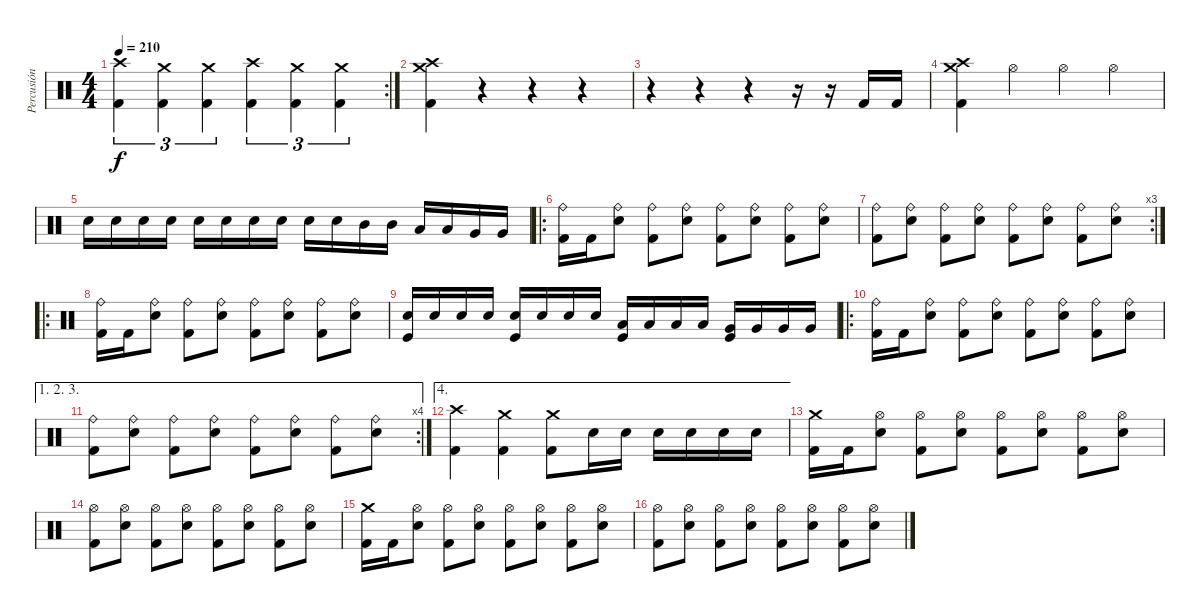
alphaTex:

\track ("Percusión" "Percusión") {instrument percussion}
\staff {score}
\articulation defaults
\rc 2
\ts (4 4)
\tempo 210
\clef neutral
\ks c
("Crash high (hit)" "Kick (hit) 2").4{tu (3 2) dy f} ("Crash medium (hit)" "Kick (hit) 2").4{tu (3 2)} ("Crash medium (hit)" "Kick (hit) 2").4{tu (3 2)} ("Crash high (hit)" "Kick (hit) 2").4{tu (3 2)} ("Crash medium (hit)" "Kick (hit) 2").4{tu (3 2)} ("Crash medium (hit)" "Kick (hit) 2").4{tu (3 2)} |
("Crash medium (hit)" "Crash high (hit)" "Kick (hit) 2").4 r.4 r.4 r.4 |
r.4 r.4 r.4 r.16 r.16 "Kick (hit) 2".16 "Kick (hit) 2".16 |
("Crash medium (hit)" "Crash high (hit)" "Kick (hit) 2").4 "Hi-Hat (open)".4 "Hi-Hat (open)".4 "Hi-Hat (open)".4 |
"Snare (hit) 2".16 "Snare (hit) 2".16 "Snare (hit) 2".16 "Snare (hit) 2".16 "Snare (hit) 2".16 "Snare (hit) 2".16 "Snare (hit) 2".16 "Snare (hit) 2".16 "Snare (hit) 2".16 "Snare (hit) 2".16 "Mid Tom (hit)".16 "Mid Tom (hit)".16 "Low Tom (hit)".16 "Low Tom (hit)".16 "Very Low Tom (hit)".16 "Very Low Tom (hit)".16 |
\ro
("Ride (bell)" "Kick (hit) 2").16 "Kick (hit) 2".16 ("Ride (bell)" "Snare (hit) 2").8 ("Ride (bell)" "Kick (hit) 2").8 ("Ride (bell)" "Snare (hit) 2").8 ("Ride (bell)" "Kick (hit) 2").8 ("Ride (bell)" "Snare (hit) 2").8 ("Ride (bell)" "Kick (hit) 2").8 ("Ride (bell)" "Snare (hit) 2").8 |
\rc 3
("Ride (bell)" "Kick (hit) 2").8 ("Ride (bell)" "Snare (hit) 2").8 ("Ride (bell)" "Kick (hit) 2").8 ("Ride (bell)" "Snare (hit) 2").8 ("Ride (bell)" "Kick (hit) 2").8 ("Ride (bell)" "Snare (hit) 2").8 ("Ride (bell)" "Kick (hit) 2").8 ("Ride (bell)" "Snare (hit) 2").8 |
\ro
("Ride (bell)" "Kick (hit) 2").16 "Kick (hit) 2".16 ("Ride (bell)" "Snare (hit) 2").8 ("Ride (bell)" "Kick (hit) 2").8 ("Ride (bell)" "Snare (hit) 2").8 ("Ride (bell)" "Kick (hit) 2").8 ("Ride (bell)" "Snare (hit) 2").8 ("Ride (bell)" "Kick (hit) 2").8 ("Ride (bell)" "Snare (hit) 2").8 |
("Snare (hit) 2" "Kick (hit)").16 "Snare (hit) 2".16 "Snare (hit) 2".16 "Snare (hit) 2".16 ("Snare (hit) 2" "Kick (hit)").16 "Snare (hit) 2".16 "Snare (hit) 2".16 "Snare (hit) 2".16 ("Low Tom (hit)" "Kick (hit)").16 "Low Tom (hit)".16 "Low Tom (hit)".16 "Low Tom (hit)".16 ("Very Low Tom (hit)" "Kick (hit)").16 "Very Low Tom (hit)".16 "Very Low Tom (hit)".16 "Very Low Tom (hit)".16 |
\ro
("Ride (bell)" "Kick (hit) 2").16 "Kick (hit) 2".16 ("Ride (bell)" "Snare (hit) 2").8 ("Ride (bell)" "Kick (hit) 2").8 ("Ride (bell)" "Snare (hit) 2").8 ("Ride (bell)" "Kick (hit) 2").8 ("Ride (bell)" "Snare (hit) 2").8 ("Ride (bell)" "Kick (hit) 2").8 ("Ride (bell)" "Snare (hit) 2").8 |
\ae (1 2 3)
\rc 4
("Ride (bell)" "Kick (hit) 2").8 ("Ride (bell)" "Snare (hit) 2").8 ("Ride (bell)" "Kick (hit) 2").8 ("Ride (bell)" "Snare (hit) 2").8 ("Ride (bell)" "Kick (hit) 2").8 ("Ride (bell)" "Snare (hit) 2").8 ("Ride (bell)" "Kick (hit) 2").8 ("Ride (bell)" "Snare (hit) 2").8 |
\ae 4
("Crash high (hit)" "Kick (hit) 2").4 ("Crash medium (hit)" "Kick (hit) 2").4 ("Crash medium (hit)" "Kick (hit) 2").8 "Snare (hit) 2".16 "Snare (hit) 2".16 "Snare (hit) 2".16 "Snare (hit) 2".16 "Snare (hit) 2".16 "Snare (hit) 2".16 |
("Crash medium (hit)" "Kick (hit) 2").16 "Kick (hit) 2".16 ("Hi-Hat (open)" "Snare (hit) 2").8 ("Hi-Hat (open)" "Kick (hit) 2").8 ("Hi-Hat (open)" "Snare (hit) 2").8 ("Hi-Hat (open)" "Kick (hit) 2").8 ("Hi-Hat (open)" "Snare (hit) 2").8 ("Hi-Hat (open)" "Kick (hit) 2").8 ("Hi-Hat (open)" "Snare (hit) 2").8 |
("Hi-Hat (open)" "Kick (hit) 2").8 ("Hi-Hat (open)" "Snare (hit) 2").8 ("Hi-Hat (open)" "Kick (hit) 2").8 ("Hi-Hat (open)" "Snare (hit) 2").8 ("Hi-Hat (open)" "Kick (hit) 2").8 ("Hi-Hat (open)" "Snare (hit) 2").8 ("Hi-Hat (open)" "Kick (hit) 2").8 ("Hi-Hat (open)" "Snare (hit) 2").8 |
("Crash medium (hit)" "Kick (hit) 2").16 "Kick (hit) 2".16 ("Hi-Hat (open)" "Snare (hit) 2").8 ("Hi-Hat (open)" "Kick (hit) 2").8 ("Hi-Hat (open)" "Snare (hit) 2").8 ("Hi-Hat (open)" "Kick (hit) 2").8 ("Hi-Hat (open)" "Snare (hit) 2").8 ("Hi-Hat (open)" "Kick (hit) 2").8 ("Hi-Hat (open)" "Snare (hit) 2").8 |
("Hi-Hat (open)" "Kick (hit) 2").8 ("Hi-Hat (open)" "Snare (hit) 2").8 ("Hi-Hat (open)" "Kick (hit) 2").8 ("Hi-Hat (open)" "Snare (hit) 2").8 ("Hi-Hat (open)" "Kick (hit) 2").8 ("Hi-Hat (open)" "Snare (hit) 2").8 ("Hi-Hat (open)" "Kick (hit) 2").8 ("Hi-Hat (open)" "Snare (hit) 2").8
